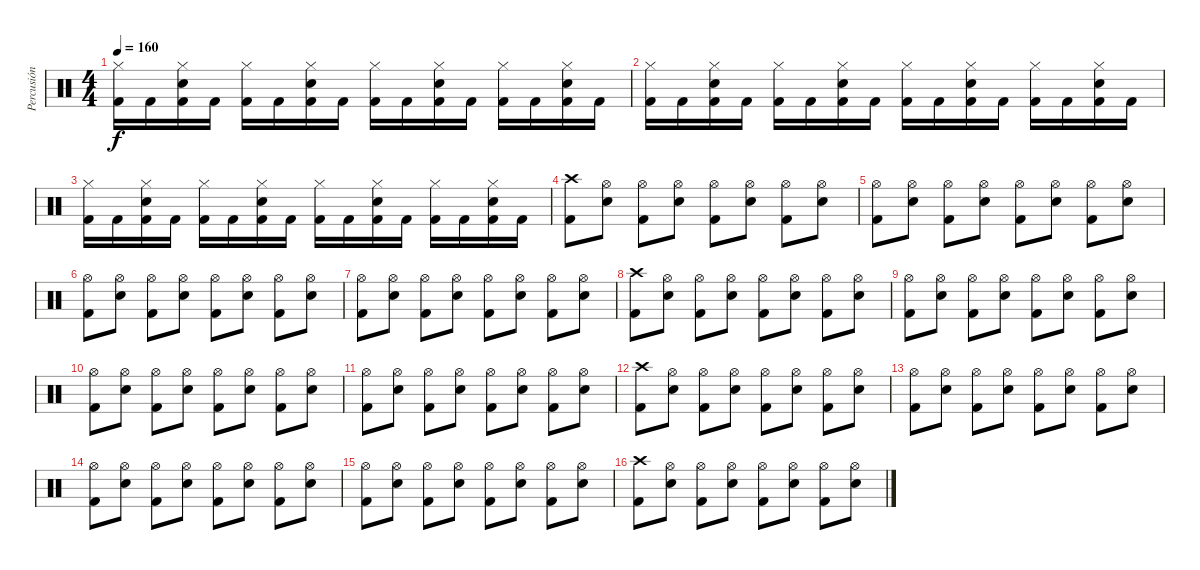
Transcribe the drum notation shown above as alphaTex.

\track ("Percusión" "Percusión") {instrument percussion}
\staff {score}
\articulation defaults
\ts (4 4)
\tempo 160
\clef neutral
\ks c
("Kick (hit) 2" "Hi-Hat (closed)").16{dy f} "Kick (hit) 2".16 ("Kick (hit) 2" "Snare (hit) 2" "Hi-Hat (closed)").16 "Kick (hit) 2".16 ("Kick (hit) 2" "Hi-Hat (closed)").16 "Kick (hit) 2".16 ("Kick (hit) 2" "Snare (hit) 2" "Hi-Hat (closed)").16 "Kick (hit) 2".16 ("Kick (hit) 2" "Hi-Hat (closed)").16 "Kick (hit) 2".16 ("Kick (hit) 2" "Snare (hit) 2" "Hi-Hat (closed)").16 "Kick (hit) 2".16 ("Kick (hit) 2" "Hi-Hat (closed)").16 "Kick (hit) 2".16 ("Kick (hit) 2" "Snare (hit) 2" "Hi-Hat (closed)").16 "Kick (hit) 2".16 |
("Kick (hit) 2" "Hi-Hat (closed)").16 "Kick (hit) 2".16 ("Kick (hit) 2" "Snare (hit) 2" "Hi-Hat (closed)").16 "Kick (hit) 2".16 ("Kick (hit) 2" "Hi-Hat (closed)").16 "Kick (hit) 2".16 ("Kick (hit) 2" "Snare (hit) 2" "Hi-Hat (closed)").16 "Kick (hit) 2".16 ("Kick (hit) 2" "Hi-Hat (closed)").16 "Kick (hit) 2".16 ("Kick (hit) 2" "Snare (hit) 2" "Hi-Hat (closed)").16 "Kick (hit) 2".16 ("Kick (hit) 2" "Hi-Hat (closed)").16 "Kick (hit) 2".16 ("Kick (hit) 2" "Snare (hit) 2" "Hi-Hat (closed)").16 "Kick (hit) 2".16 |
("Kick (hit) 2" "Hi-Hat (closed)").16 "Kick (hit) 2".16 ("Kick (hit) 2" "Snare (hit) 2" "Hi-Hat (closed)").16 "Kick (hit) 2".16 ("Kick (hit) 2" "Hi-Hat (closed)").16 "Kick (hit) 2".16 ("Kick (hit) 2" "Snare (hit) 2" "Hi-Hat (closed)").16 "Kick (hit) 2".16 ("Kick (hit) 2" "Hi-Hat (closed)").16 "Kick (hit) 2".16 ("Kick (hit) 2" "Snare (hit) 2" "Hi-Hat (closed)").16 "Kick (hit) 2".16 ("Kick (hit) 2" "Hi-Hat (closed)").16 "Kick (hit) 2".16 ("Kick (hit) 2" "Snare (hit) 2" "Hi-Hat (closed)").16 "Kick (hit) 2".16 |
("Kick (hit) 2" "Crash high (hit)").8 ("Snare (hit) 2" "Hi-Hat (open)").8 ("Kick (hit) 2" "Hi-Hat (open)").8 ("Snare (hit) 2" "Hi-Hat (open)").8 ("Kick (hit) 2" "Hi-Hat (open)").8 ("Snare (hit) 2" "Hi-Hat (open)").8 ("Kick (hit) 2" "Hi-Hat (open)").8 ("Snare (hit) 2" "Hi-Hat (open)").8 |
("Kick (hit) 2" "Hi-Hat (open)").8 ("Snare (hit) 2" "Hi-Hat (open)").8 ("Kick (hit) 2" "Hi-Hat (open)").8 ("Snare (hit) 2" "Hi-Hat (open)").8 ("Kick (hit) 2" "Hi-Hat (open)").8 ("Snare (hit) 2" "Hi-Hat (open)").8 ("Kick (hit) 2" "Hi-Hat (open)").8 ("Snare (hit) 2" "Hi-Hat (open)").8 |
("Kick (hit) 2" "Hi-Hat (open)").8 ("Snare (hit) 2" "Hi-Hat (open)").8 ("Kick (hit) 2" "Hi-Hat (open)").8 ("Snare (hit) 2" "Hi-Hat (open)").8 ("Kick (hit) 2" "Hi-Hat (open)").8 ("Snare (hit) 2" "Hi-Hat (open)").8 ("Kick (hit) 2" "Hi-Hat (open)").8 ("Snare (hit) 2" "Hi-Hat (open)").8 |
("Kick (hit) 2" "Hi-Hat (open)").8 ("Snare (hit) 2" "Hi-Hat (open)").8 ("Kick (hit) 2" "Hi-Hat (open)").8 ("Snare (hit) 2" "Hi-Hat (open)").8 ("Kick (hit) 2" "Hi-Hat (open)").8 ("Snare (hit) 2" "Hi-Hat (open)").8 ("Kick (hit) 2" "Hi-Hat (open)").8 ("Snare (hit) 2" "Hi-Hat (open)").8 |
("Kick (hit) 2" "Crash high (hit)").8 ("Snare (hit) 2" "Hi-Hat (open)").8 ("Kick (hit) 2" "Hi-Hat (open)").8 ("Snare (hit) 2" "Hi-Hat (open)").8 ("Kick (hit) 2" "Hi-Hat (open)").8 ("Snare (hit) 2" "Hi-Hat (open)").8 ("Kick (hit) 2" "Hi-Hat (open)").8 ("Snare (hit) 2" "Hi-Hat (open)").8 |
("Kick (hit) 2" "Hi-Hat (open)").8 ("Snare (hit) 2" "Hi-Hat (open)").8 ("Kick (hit) 2" "Hi-Hat (open)").8 ("Snare (hit) 2" "Hi-Hat (open)").8 ("Kick (hit) 2" "Hi-Hat (open)").8 ("Snare (hit) 2" "Hi-Hat (open)").8 ("Kick (hit) 2" "Hi-Hat (open)").8 ("Snare (hit) 2" "Hi-Hat (open)").8 |
("Kick (hit) 2" "Hi-Hat (open)").8 ("Snare (hit) 2" "Hi-Hat (open)").8 ("Kick (hit) 2" "Hi-Hat (open)").8 ("Snare (hit) 2" "Hi-Hat (open)").8 ("Kick (hit) 2" "Hi-Hat (open)").8 ("Snare (hit) 2" "Hi-Hat (open)").8 ("Kick (hit) 2" "Hi-Hat (open)").8 ("Snare (hit) 2" "Hi-Hat (open)").8 |
("Kick (hit) 2" "Hi-Hat (open)").8 ("Snare (hit) 2" "Hi-Hat (open)").8 ("Kick (hit) 2" "Hi-Hat (open)").8 ("Snare (hit) 2" "Hi-Hat (open)").8 ("Kick (hit) 2" "Hi-Hat (open)").8 ("Snare (hit) 2" "Hi-Hat (open)").8 ("Kick (hit) 2" "Hi-Hat (open)").8 ("Snare (hit) 2" "Hi-Hat (open)").8 |
("Kick (hit) 2" "Crash high (hit)").8 ("Snare (hit) 2" "Hi-Hat (open)").8 ("Kick (hit) 2" "Hi-Hat (open)").8 ("Snare (hit) 2" "Hi-Hat (open)").8 ("Kick (hit) 2" "Hi-Hat (open)").8 ("Snare (hit) 2" "Hi-Hat (open)").8 ("Kick (hit) 2" "Hi-Hat (open)").8 ("Snare (hit) 2" "Hi-Hat (open)").8 |
("Kick (hit) 2" "Hi-Hat (open)").8 ("Snare (hit) 2" "Hi-Hat (open)").8 ("Kick (hit) 2" "Hi-Hat (open)").8 ("Snare (hit) 2" "Hi-Hat (open)").8 ("Kick (hit) 2" "Hi-Hat (open)").8 ("Snare (hit) 2" "Hi-Hat (open)").8 ("Kick (hit) 2" "Hi-Hat (open)").8 ("Snare (hit) 2" "Hi-Hat (open)").8 |
("Kick (hit) 2" "Hi-Hat (open)").8 ("Snare (hit) 2" "Hi-Hat (open)").8 ("Kick (hit) 2" "Hi-Hat (open)").8 ("Snare (hit) 2" "Hi-Hat (open)").8 ("Kick (hit) 2" "Hi-Hat (open)").8 ("Snare (hit) 2" "Hi-Hat (open)").8 ("Kick (hit) 2" "Hi-Hat (open)").8 ("Snare (hit) 2" "Hi-Hat (open)").8 |
("Kick (hit) 2" "Hi-Hat (open)").8 ("Snare (hit) 2" "Hi-Hat (open)").8 ("Kick (hit) 2" "Hi-Hat (open)").8 ("Snare (hit) 2" "Hi-Hat (open)").8 ("Kick (hit) 2" "Hi-Hat (open)").8 ("Snare (hit) 2" "Hi-Hat (open)").8 ("Kick (hit) 2" "Hi-Hat (open)").8 ("Snare (hit) 2" "Hi-Hat (open)").8 |
("Kick (hit) 2" "Crash high (hit)").8 ("Snare (hit) 2" "Hi-Hat (open)").8 ("Kick (hit) 2" "Hi-Hat (open)").8 ("Snare (hit) 2" "Hi-Hat (open)").8 ("Kick (hit) 2" "Hi-Hat (open)").8 ("Snare (hit) 2" "Hi-Hat (open)").8 ("Kick (hit) 2" "Hi-Hat (open)").8 ("Snare (hit) 2" "Hi-Hat (open)").8
